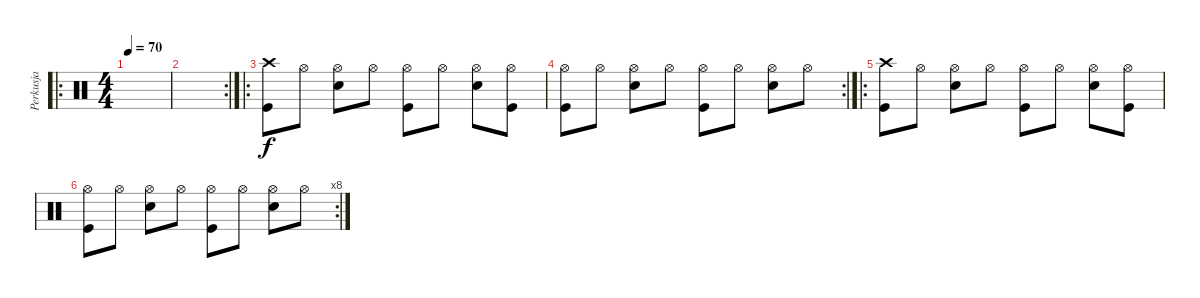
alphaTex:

\track ("Perkusja" "Perkusja") {instrument percussion}
\staff {score}
\articulation defaults
\ro
\ts (4 4)
\tempo 70
\clef neutral
\ks c
|
\rc 2
|
\ro
("Crash high (hit)" "Kick (hit)").8 "Hi-Hat (open)".8 ("Snare (hit) 2" "Hi-Hat (open)").8 "Hi-Hat (open)".8 ("Kick (hit)" "Hi-Hat (open)").8 "Hi-Hat (open)".8 ("Snare (hit) 2" "Hi-Hat (open)").8 ("Kick (hit)" "Hi-Hat (open)").8 |
\rc 2
("Kick (hit)" "Hi-Hat (open)").8 "Hi-Hat (open)".8 ("Snare (hit) 2" "Hi-Hat (open)").8 "Hi-Hat (open)".8 ("Kick (hit)" "Hi-Hat (open)").8 "Hi-Hat (open)".8 ("Snare (hit) 2" "Hi-Hat (open)").8 "Hi-Hat (open)".8 |
\ro
("Crash high (hit)" "Kick (hit)").8 "Hi-Hat (open)".8 ("Snare (hit) 2" "Hi-Hat (open)").8 "Hi-Hat (open)".8 ("Kick (hit)" "Hi-Hat (open)").8 "Hi-Hat (open)".8 ("Snare (hit) 2" "Hi-Hat (open)").8 ("Kick (hit)" "Hi-Hat (open)").8 |
\rc 8
("Kick (hit)" "Hi-Hat (open)").8 "Hi-Hat (open)".8 ("Snare (hit) 2" "Hi-Hat (open)").8 "Hi-Hat (open)".8 ("Kick (hit)" "Hi-Hat (open)").8 "Hi-Hat (open)".8 ("Snare (hit) 2" "Hi-Hat (open)").8 "Hi-Hat (open)".8
